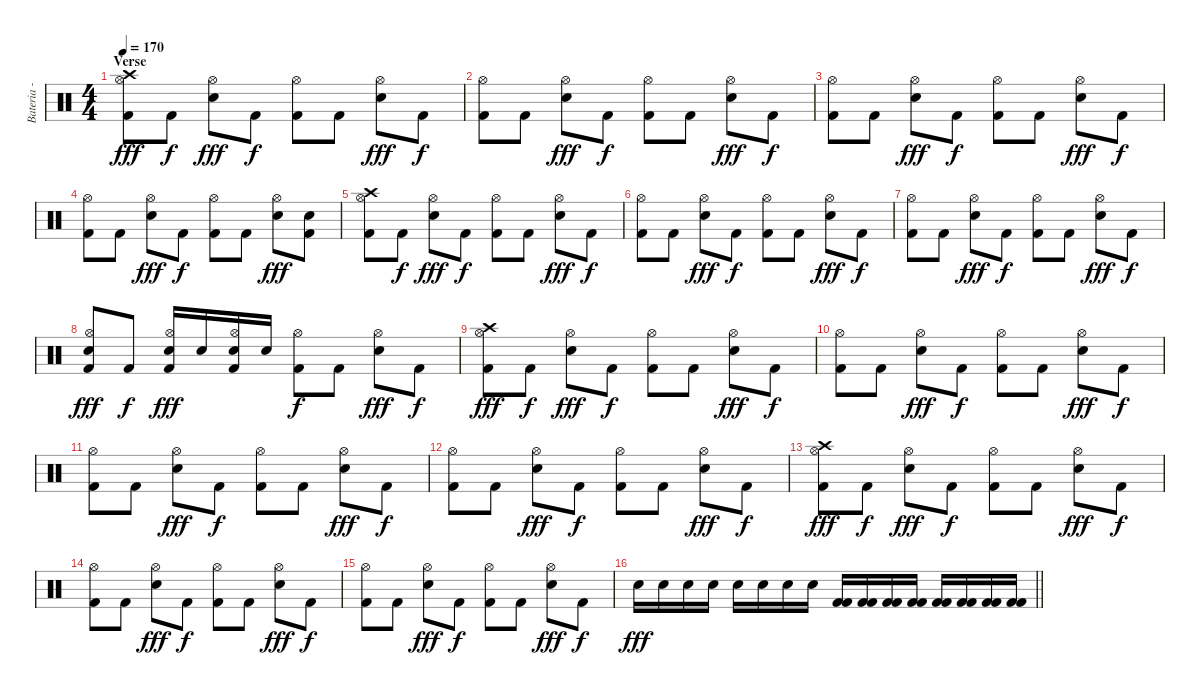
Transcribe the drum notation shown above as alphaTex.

\track ("Bateria - Larzon" "Bateria - ") {instrument percussion}
\staff {score}
\articulation defaults
\ts (4 4)
\section ("" "Verse")
\tempo 170
\clef neutral
\ks c
("Crash high (hit)" "Kick (hit) 2" "Hi-Hat (open)").8{dy fff} "Kick (hit) 2".8{dy f} ("Hi-Hat (open)" "Snare (hit) 2").8{dy fff} "Kick (hit) 2".8{dy f} ("Kick (hit) 2" "Hi-Hat (open)").8 "Kick (hit) 2".8 ("Hi-Hat (open)" "Snare (hit) 2").8{dy fff} "Kick (hit) 2".8{dy f} |
("Kick (hit) 2" "Hi-Hat (open)").8 "Kick (hit) 2".8 ("Hi-Hat (open)" "Snare (hit) 2").8{dy fff} "Kick (hit) 2".8{dy f} ("Kick (hit) 2" "Hi-Hat (open)").8 "Kick (hit) 2".8 ("Hi-Hat (open)" "Snare (hit) 2").8{dy fff} "Kick (hit) 2".8{dy f} |
("Kick (hit) 2" "Hi-Hat (open)").8 "Kick (hit) 2".8 ("Hi-Hat (open)" "Snare (hit) 2").8{dy fff} "Kick (hit) 2".8{dy f} ("Kick (hit) 2" "Hi-Hat (open)").8 "Kick (hit) 2".8 ("Hi-Hat (open)" "Snare (hit) 2").8{dy fff} "Kick (hit) 2".8{dy f} |
("Kick (hit) 2" "Hi-Hat (open)").8 "Kick (hit) 2".8 ("Hi-Hat (open)" "Snare (hit) 2").8{dy fff} "Kick (hit) 2".8{dy f} ("Kick (hit) 2" "Hi-Hat (open)").8 "Kick (hit) 2".8 ("Hi-Hat (open)" "Snare (hit) 2").8{dy fff} ("Kick (hit) 2" "Snare (hit) 2").8 |
("Crash high (hit)" "Kick (hit) 2" "Hi-Hat (open)").8 "Kick (hit) 2".8{dy f} ("Hi-Hat (open)" "Snare (hit) 2").8{dy fff} "Kick (hit) 2".8{dy f} ("Kick (hit) 2" "Hi-Hat (open)").8 "Kick (hit) 2".8 ("Hi-Hat (open)" "Snare (hit) 2").8{dy fff} "Kick (hit) 2".8{dy f} |
("Kick (hit) 2" "Hi-Hat (open)").8 "Kick (hit) 2".8 ("Hi-Hat (open)" "Snare (hit) 2").8{dy fff} "Kick (hit) 2".8{dy f} ("Kick (hit) 2" "Hi-Hat (open)").8 "Kick (hit) 2".8 ("Hi-Hat (open)" "Snare (hit) 2").8{dy fff} "Kick (hit) 2".8{dy f} |
("Kick (hit) 2" "Hi-Hat (open)").8 "Kick (hit) 2".8 ("Hi-Hat (open)" "Snare (hit) 2").8{dy fff} "Kick (hit) 2".8{dy f} ("Kick (hit) 2" "Hi-Hat (open)").8 "Kick (hit) 2".8 ("Hi-Hat (open)" "Snare (hit) 2").8{dy fff} "Kick (hit) 2".8{dy f} |
("Kick (hit) 2" "Hi-Hat (open)" "Snare (hit) 2").8{dy fff} "Kick (hit) 2".8{dy f} ("Kick (hit) 2" "Hi-Hat (open)" "Snare (hit) 2").16{dy fff} "Snare (hit) 2".16 ("Kick (hit) 2" "Hi-Hat (open)" "Snare (hit) 2").16 "Snare (hit) 2".16 ("Kick (hit) 2" "Hi-Hat (open)").8{dy f} "Kick (hit) 2".8 ("Hi-Hat (open)" "Snare (hit) 2").8{dy fff} "Kick (hit) 2".8{dy f} |
("Crash high (hit)" "Kick (hit) 2" "Hi-Hat (open)").8{dy fff} "Kick (hit) 2".8{dy f} ("Hi-Hat (open)" "Snare (hit) 2").8{dy fff} "Kick (hit) 2".8{dy f} ("Kick (hit) 2" "Hi-Hat (open)").8 "Kick (hit) 2".8 ("Hi-Hat (open)" "Snare (hit) 2").8{dy fff} "Kick (hit) 2".8{dy f} |
("Kick (hit) 2" "Hi-Hat (open)").8 "Kick (hit) 2".8 ("Hi-Hat (open)" "Snare (hit) 2").8{dy fff} "Kick (hit) 2".8{dy f} ("Kick (hit) 2" "Hi-Hat (open)").8 "Kick (hit) 2".8 ("Hi-Hat (open)" "Snare (hit) 2").8{dy fff} "Kick (hit) 2".8{dy f} |
("Kick (hit) 2" "Hi-Hat (open)").8 "Kick (hit) 2".8 ("Hi-Hat (open)" "Snare (hit) 2").8{dy fff} "Kick (hit) 2".8{dy f} ("Kick (hit) 2" "Hi-Hat (open)").8 "Kick (hit) 2".8 ("Hi-Hat (open)" "Snare (hit) 2").8{dy fff} "Kick (hit) 2".8{dy f} |
("Kick (hit) 2" "Hi-Hat (open)").8 "Kick (hit) 2".8 ("Hi-Hat (open)" "Snare (hit) 2").8{dy fff} "Kick (hit) 2".8{dy f} ("Kick (hit) 2" "Hi-Hat (open)").8 "Kick (hit) 2".8 ("Hi-Hat (open)" "Snare (hit) 2").8{dy fff} "Kick (hit) 2".8{dy f} |
("Crash high (hit)" "Kick (hit) 2" "Hi-Hat (open)").8{dy fff} "Kick (hit) 2".8{dy f} ("Hi-Hat (open)" "Snare (hit) 2").8{dy fff} "Kick (hit) 2".8{dy f} ("Kick (hit) 2" "Hi-Hat (open)").8 "Kick (hit) 2".8 ("Hi-Hat (open)" "Snare (hit) 2").8{dy fff} "Kick (hit) 2".8{dy f} |
("Kick (hit) 2" "Hi-Hat (open)").8 "Kick (hit) 2".8 ("Hi-Hat (open)" "Snare (hit) 2").8{dy fff} "Kick (hit) 2".8{dy f} ("Kick (hit) 2" "Hi-Hat (open)").8 "Kick (hit) 2".8 ("Hi-Hat (open)" "Snare (hit) 2").8{dy fff} "Kick (hit) 2".8{dy f} |
("Kick (hit) 2" "Hi-Hat (open)").8 "Kick (hit) 2".8 ("Hi-Hat (open)" "Snare (hit) 2").8{dy fff} "Kick (hit) 2".8{dy f} ("Kick (hit) 2" "Hi-Hat (open)").8 "Kick (hit) 2".8 ("Hi-Hat (open)" "Snare (hit) 2").8{dy fff} "Kick (hit) 2".8{dy f} |
\barLineRight lightlight "Snare (hit) 2".16{dy fff} "Snare (hit) 2".16 "Snare (hit) 2".16 "Snare (hit) 2".16 "Snare (hit) 2".16 "Snare (hit) 2".16 "Snare (hit) 2".16 "Snare (hit) 2".16
("Kick (hit) 2" "Kick (hit) 2").16 ("Kick (hit) 2" "Kick (hit) 2").16 ("Kick (hit) 2" "Kick (hit) 2").16 ("Kick (hit) 2" "Kick (hit) 2").16 ("Kick (hit) 2" "Kick (hit) 2").16 ("Kick (hit) 2" "Kick (hit) 2").16 ("Kick (hit) 2" "Kick (hit) 2").16 ("Kick (hit) 2" "Kick (hit) 2").16
